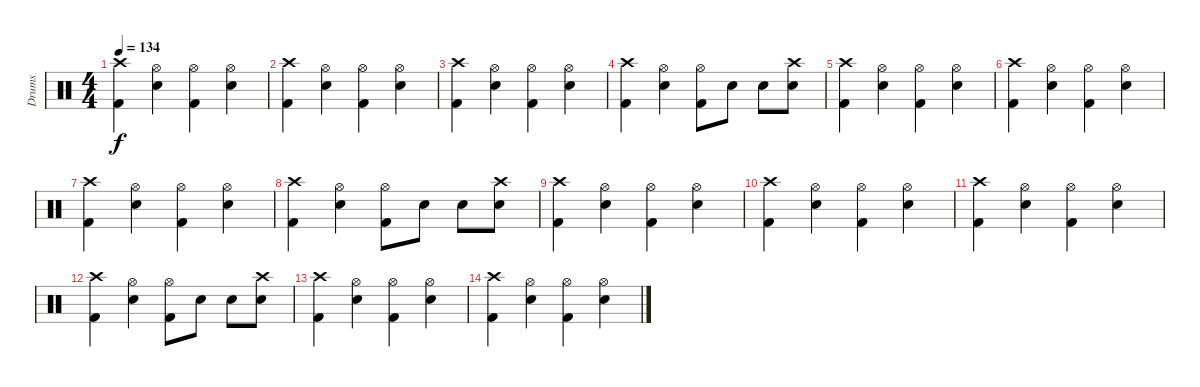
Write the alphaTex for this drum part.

\track ("Drums" "Drums") {instrument percussion}
\staff {score}
\articulation defaults
\ts (4 4)
\tempo 134
\clef neutral
\ks c
("Crash high (hit)" "Kick (hit) 2").4{dy f} ("Hi-Hat (open)" "Snare (hit) 2").4 ("Hi-Hat (open)" "Kick (hit) 2").4 ("Hi-Hat (open)" "Snare (hit) 2").4 |
("Crash high (hit)" "Kick (hit) 2").4 ("Hi-Hat (open)" "Snare (hit) 2").4 ("Hi-Hat (open)" "Kick (hit) 2").4 ("Hi-Hat (open)" "Snare (hit) 2").4 |
("Crash high (hit)" "Kick (hit) 2").4 ("Hi-Hat (open)" "Snare (hit) 2").4 ("Hi-Hat (open)" "Kick (hit) 2").4 ("Hi-Hat (open)" "Snare (hit) 2").4 |
("Crash high (hit)" "Kick (hit) 2").4 ("Hi-Hat (open)" "Snare (hit) 2").4 ("Hi-Hat (open)" "Kick (hit) 2").8 "Snare (hit) 2".8 "Snare (hit) 2".8 ("Crash high (hit)" "Snare (hit) 2").8 |
("Crash high (hit)" "Kick (hit) 2").4 ("Hi-Hat (open)" "Snare (hit) 2").4 ("Hi-Hat (open)" "Kick (hit) 2").4 ("Hi-Hat (open)" "Snare (hit) 2").4 |
("Crash high (hit)" "Kick (hit) 2").4 ("Hi-Hat (open)" "Snare (hit) 2").4 ("Hi-Hat (open)" "Kick (hit) 2").4 ("Hi-Hat (open)" "Snare (hit) 2").4 |
("Crash high (hit)" "Kick (hit) 2").4 ("Hi-Hat (open)" "Snare (hit) 2").4 ("Hi-Hat (open)" "Kick (hit) 2").4 ("Hi-Hat (open)" "Snare (hit) 2").4 |
("Crash high (hit)" "Kick (hit) 2").4 ("Hi-Hat (open)" "Snare (hit) 2").4 ("Hi-Hat (open)" "Kick (hit) 2").8 "Snare (hit) 2".8 "Snare (hit) 2".8 ("Crash high (hit)" "Snare (hit) 2").8 |
("Crash high (hit)" "Kick (hit) 2").4 ("Hi-Hat (open)" "Snare (hit) 2").4 ("Hi-Hat (open)" "Kick (hit) 2").4 ("Hi-Hat (open)" "Snare (hit) 2").4 |
("Crash high (hit)" "Kick (hit) 2").4 ("Hi-Hat (open)" "Snare (hit) 2").4 ("Hi-Hat (open)" "Kick (hit) 2").4 ("Hi-Hat (open)" "Snare (hit) 2").4 |
("Crash high (hit)" "Kick (hit) 2").4 ("Hi-Hat (open)" "Snare (hit) 2").4 ("Hi-Hat (open)" "Kick (hit) 2").4 ("Hi-Hat (open)" "Snare (hit) 2").4 |
("Crash high (hit)" "Kick (hit) 2").4 ("Hi-Hat (open)" "Snare (hit) 2").4 ("Hi-Hat (open)" "Kick (hit) 2").8 "Snare (hit) 2".8 "Snare (hit) 2".8 ("Crash high (hit)" "Snare (hit) 2").8 |
("Crash high (hit)" "Kick (hit) 2").4 ("Hi-Hat (open)" "Snare (hit) 2").4 ("Hi-Hat (open)" "Kick (hit) 2").4 ("Hi-Hat (open)" "Snare (hit) 2").4 |
("Crash high (hit)" "Kick (hit) 2").4 ("Hi-Hat (open)" "Snare (hit) 2").4 ("Hi-Hat (open)" "Kick (hit) 2").4 ("Hi-Hat (open)" "Snare (hit) 2").4
